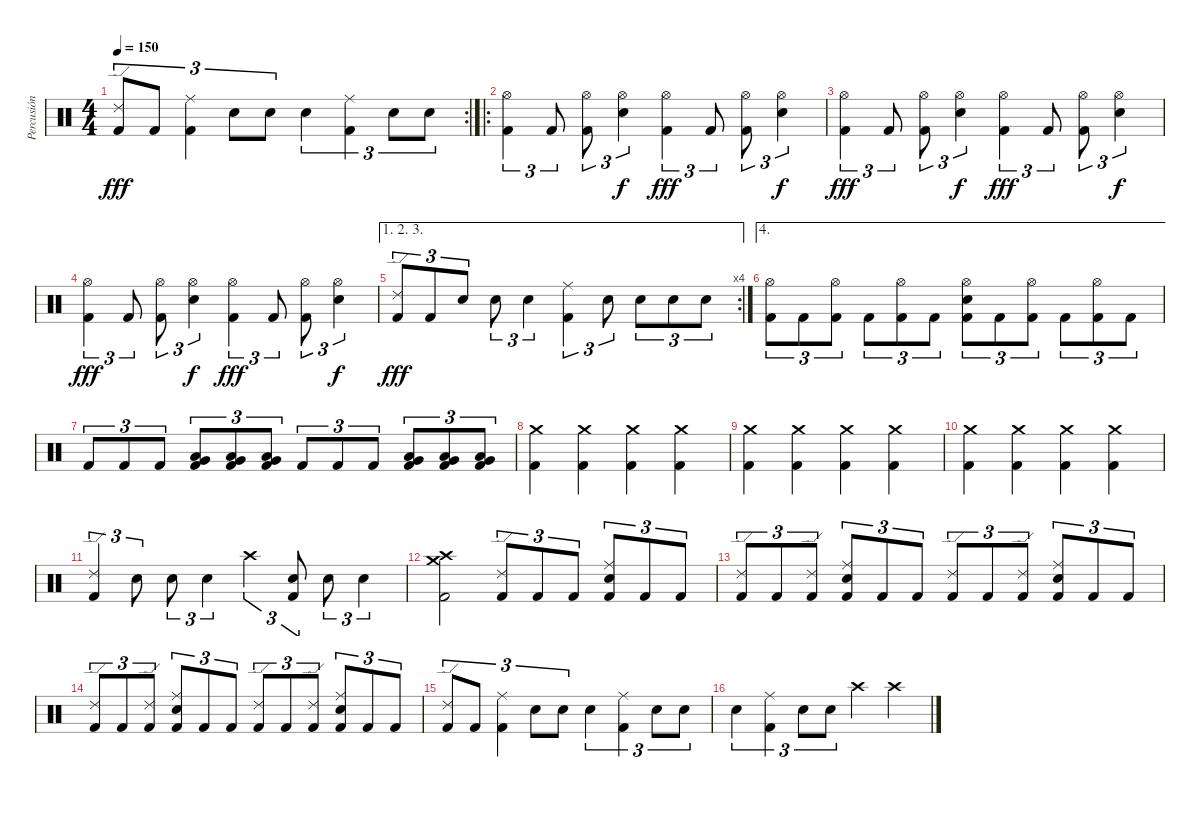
\track ("Percusión" "Percusión") {instrument percussion}
\staff {score}
\articulation defaults
\rc 2
\ts (4 4)
\tempo 150
\clef neutral
\ks c
("Ride (edge) 2" "Kick (hit) 2").8{tu (3 2) dy fff} "Kick (hit) 2".8{tu (3 2)} ("Ride (middle)" "Kick (hit) 2").4{tu (3 2)} "Electric Snare (hit)".8{tu (3 2)} "Electric Snare (hit)".8{tu (3 2)} "Electric Snare (hit)".4{tu (3 2)} ("Ride (middle)" "Kick (hit) 2").4{tu (3 2)} "Electric Snare (hit)".8{tu (3 2)} "Electric Snare (hit)".8{tu (3 2)} |
\ro
("Hi-Hat (open)" "Kick (hit) 2").4{tu (3 2)} "Kick (hit) 2".8{tu (3 2)} ("Hi-Hat (open)" "Kick (hit) 2").8{tu (3 2)} ("Hi-Hat (open)" "Snare (hit) 2").4{tu (3 2) dy f} ("Hi-Hat (open)" "Kick (hit) 2").4{tu (3 2) dy fff} "Kick (hit) 2".8{tu (3 2)} ("Hi-Hat (open)" "Kick (hit) 2").8{tu (3 2)} ("Hi-Hat (open)" "Snare (hit) 2").4{tu (3 2) dy f} |
("Hi-Hat (open)" "Kick (hit) 2").4{tu (3 2) dy fff} "Kick (hit) 2".8{tu (3 2)} ("Hi-Hat (open)" "Kick (hit) 2").8{tu (3 2)} ("Hi-Hat (open)" "Snare (hit) 2").4{tu (3 2) dy f} ("Hi-Hat (open)" "Kick (hit) 2").4{tu (3 2) dy fff} "Kick (hit) 2".8{tu (3 2)} ("Hi-Hat (open)" "Kick (hit) 2").8{tu (3 2)} ("Hi-Hat (open)" "Snare (hit) 2").4{tu (3 2) dy f} |
("Hi-Hat (open)" "Kick (hit) 2").4{tu (3 2) dy fff} "Kick (hit) 2".8{tu (3 2)} ("Hi-Hat (open)" "Kick (hit) 2").8{tu (3 2)} ("Hi-Hat (open)" "Snare (hit) 2").4{tu (3 2) dy f} ("Hi-Hat (open)" "Kick (hit) 2").4{tu (3 2) dy fff} "Kick (hit) 2".8{tu (3 2)} ("Hi-Hat (open)" "Kick (hit) 2").8{tu (3 2)} ("Hi-Hat (open)" "Snare (hit) 2").4{tu (3 2) dy f} |
\ae (1 2 3)
\rc 4
("Ride (edge) 2" "Kick (hit) 2").8{tu (3 2) dy fff} "Kick (hit) 2".8{tu (3 2)} "Snare (hit) 2".8{tu (3 2)} "Snare (hit) 2".8{tu (3 2)} "Snare (hit) 2".4{tu (3 2)} ("Ride (middle)" "Kick (hit) 2").4{tu (3 2)} "Snare (hit) 2".8{tu (3 2)} "Snare (hit) 2".8{tu (3 2)} "Snare (hit) 2".8{tu (3 2)} "Snare (hit) 2".8{tu (3 2)} |
\ae 4
("Hi-Hat (open)" "Kick (hit) 2").8{tu (3 2)} "Kick (hit) 2".8{tu (3 2)} ("Hi-Hat (open)" "Kick (hit) 2").8{tu (3 2)} "Kick (hit) 2".8{tu (3 2)} ("Hi-Hat (open)" "Kick (hit) 2").8{tu (3 2)} "Kick (hit) 2".8{tu (3 2)} ("Hi-Hat (open)" "Snare (hit) 2" "Kick (hit) 2").8{tu (3 2)} "Kick (hit) 2".8{tu (3 2)} ("Hi-Hat (open)" "Kick (hit) 2").8{tu (3 2)} "Kick (hit) 2".8{tu (3 2)} ("Hi-Hat (open)" "Kick (hit) 2").8{tu (3 2)} "Kick (hit) 2".8{tu (3 2)} |
"Kick (hit) 2".8{tu (3 2)} "Kick (hit) 2".8{tu (3 2)} "Kick (hit) 2".8{tu (3 2)} ("Very Low Tom (hit)" "Low Tom (hit)" "Kick (hit) 2").8{tu (3 2)} ("Very Low Tom (hit)" "Low Tom (hit)" "Kick (hit) 2").8{tu (3 2)} ("Very Low Tom (hit)" "Low Tom (hit)" "Kick (hit) 2").8{tu (3 2)} "Kick (hit) 2".8{tu (3 2)} "Kick (hit) 2".8{tu (3 2)} "Kick (hit) 2".8{tu (3 2)} ("Very Low Tom (hit)" "Low Tom (hit)" "Kick (hit) 2").8{tu (3 2)} ("Very Low Tom (hit)" "Low Tom (hit)" "Kick (hit) 2").8{tu (3 2)} ("Very Low Tom (hit)" "Low Tom (hit)" "Kick (hit) 2").8{tu (3 2)} |
("Crash medium (hit)" "Kick (hit) 2").4 ("Crash medium (hit)" "Kick (hit) 2").4 ("Crash medium (hit)" "Kick (hit) 2").4 ("Crash medium (hit)" "Kick (hit) 2").4 |
("Crash medium (hit)" "Kick (hit) 2").4 ("Crash medium (hit)" "Kick (hit) 2").4 ("Crash medium (hit)" "Kick (hit) 2").4 ("Crash medium (hit)" "Kick (hit) 2").4 |
("Crash medium (hit)" "Kick (hit) 2").4 ("Crash medium (hit)" "Kick (hit) 2").4 ("Crash medium (hit)" "Kick (hit) 2").4 ("Crash medium (hit)" "Kick (hit) 2").4 |
("Ride (edge) 2" "Kick (hit) 2").4{tu (3 2)} "Snare (hit) 2".8{tu (3 2)} "Snare (hit) 2".8{tu (3 2)} "Snare (hit) 2".4{tu (3 2)} "Crash high (hit)".4{tu (3 2)} ("Snare (hit) 2" "Kick (hit) 2").8{tu (3 2)} "Snare (hit) 2".8{tu (3 2)} "Snare (hit) 2".4{tu (3 2)} |
("Crash high (hit)" "Crash medium (hit)" "Kick (hit) 2").2 ("Ride (edge) 2" "Kick (hit) 2").8{tu (3 2)} "Kick (hit) 2".8{tu (3 2)} "Kick (hit) 2".8{tu (3 2)} ("Ride (middle)" "Snare (hit) 2" "Kick (hit) 2").8{tu (3 2)} "Kick (hit) 2".8{tu (3 2)} "Kick (hit) 2".8{tu (3 2)} |
("Ride (edge) 2" "Kick (hit) 2").8{tu (3 2)} "Kick (hit) 2".8{tu (3 2)} ("Ride (edge) 2" "Kick (hit) 2").8{tu (3 2)} ("Ride (middle)" "Snare (hit) 2" "Kick (hit) 2").8{tu (3 2)} "Kick (hit) 2".8{tu (3 2)} "Kick (hit) 2".8{tu (3 2)} ("Ride (edge) 2" "Kick (hit) 2").8{tu (3 2)} "Kick (hit) 2".8{tu (3 2)} ("Ride (edge) 2" "Kick (hit) 2").8{tu (3 2)} ("Ride (middle)" "Snare (hit) 2" "Kick (hit) 2").8{tu (3 2)} "Kick (hit) 2".8{tu (3 2)} "Kick (hit) 2".8{tu (3 2)} |
("Ride (edge) 2" "Kick (hit) 2").8{tu (3 2)} "Kick (hit) 2".8{tu (3 2)} ("Ride (edge) 2" "Kick (hit) 2").8{tu (3 2)} ("Ride (middle)" "Snare (hit) 2" "Kick (hit) 2").8{tu (3 2)} "Kick (hit) 2".8{tu (3 2)} "Kick (hit) 2".8{tu (3 2)} ("Ride (edge) 2" "Kick (hit) 2").8{tu (3 2)} "Kick (hit) 2".8{tu (3 2)} ("Ride (edge) 2" "Kick (hit) 2").8{tu (3 2)} ("Ride (middle)" "Snare (hit) 2" "Kick (hit) 2").8{tu (3 2)} "Kick (hit) 2".8{tu (3 2)} "Kick (hit) 2".8{tu (3 2)} |
("Ride (edge) 2" "Kick (hit) 2").8{tu (3 2)} "Kick (hit) 2".8{tu (3 2)} ("Ride (middle)" "Kick (hit) 2").4{tu (3 2)} "Electric Snare (hit)".8{tu (3 2)} "Electric Snare (hit)".8{tu (3 2)} "Electric Snare (hit)".4{tu (3 2)} ("Ride (middle)" "Kick (hit) 2").4{tu (3 2)} "Electric Snare (hit)".8{tu (3 2)} "Electric Snare (hit)".8{tu (3 2)} |
"Electric Snare (hit)".4{tu (3 2)} ("Ride (middle)" "Kick (hit) 2").4{tu (3 2)} "Electric Snare (hit)".8{tu (3 2)} "Electric Snare (hit)".8{tu (3 2)} "Crash high (hit)".4 "Crash high (hit)".4
